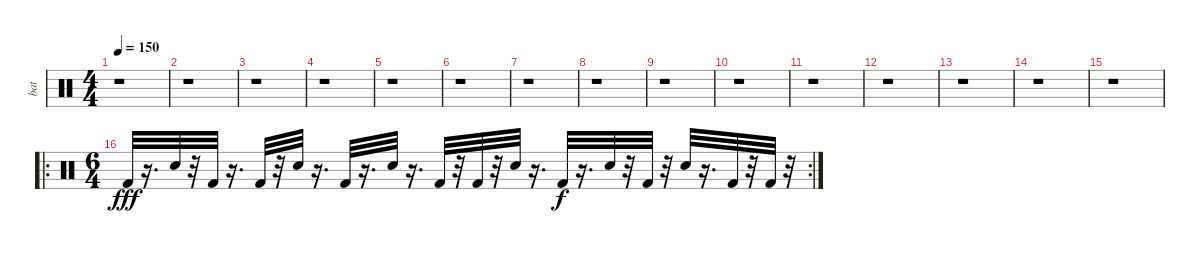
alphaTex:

\track ("bat" "bat") {instrument percussion}
\staff {score}
\articulation defaults
\ts (4 4)
\tempo 150
\clef neutral
\ks c
r.1{dy fff} |
r.1 |
r.1 |
r.1 |
r.1 |
r.1 |
r.1 |
r.1 |
r.1 |
r.1 |
r.1 |
r.1 |
r.1 |
r.1 |
r.1 |
\ro
\rc 2
\ts (6 4)
"Kick (hit) 2".32 r.16{d} "Electric Snare (hit)".32 r.32 "Kick (hit) 2".32 r.16{d} "Kick (hit) 2".32 r.32 "Electric Snare (hit)".32 r.16{d} "Kick (hit) 2".32 r.16{d} "Electric Snare (hit)".32 r.16{d} "Kick (hit) 2".32 r.32 "Kick (hit) 2".32 r.32 "Electric Snare (hit)".32 r.16{d} "Kick (hit) 2".32{dy f} r.16{d} "Electric Snare (hit)".32 r.32 "Kick (hit) 2".32 r.32 "Electric Snare (hit)".32 r.16{d} "Kick (hit) 2".32 r.32 "Kick (hit) 2".32 r.32
